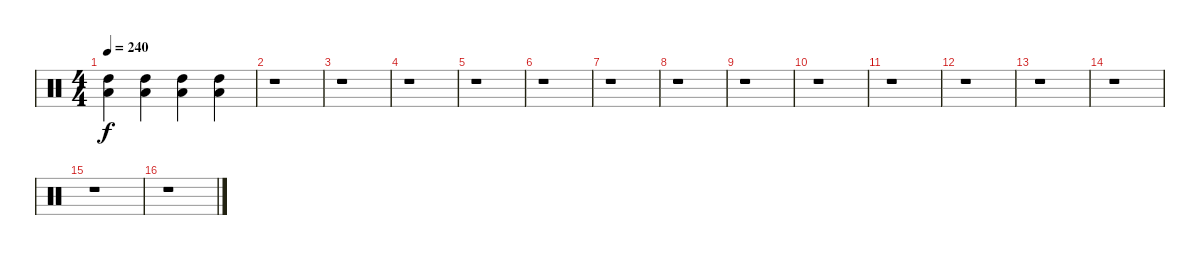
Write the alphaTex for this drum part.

\track "" {instrument percussion}
\staff {score}
\articulation defaults
\ts (4 4)
\tempo 240
\clef neutral
\ks c
("High Tom (hit)" "Low Floor Tom (hit)").4{dy f} ("High Tom (hit)" "Low Floor Tom (hit)").4 ("High Tom (hit)" "Low Floor Tom (hit)").4 ("High Tom (hit)" "Low Floor Tom (hit)").4 |
r.1 |
r.1 |
r.1 |
r.1 |
r.1 |
r.1 |
r.1 |
r.1 |
r.1 |
r.1 |
r.1 |
r.1 |
r.1 |
r.1 |
r.1
